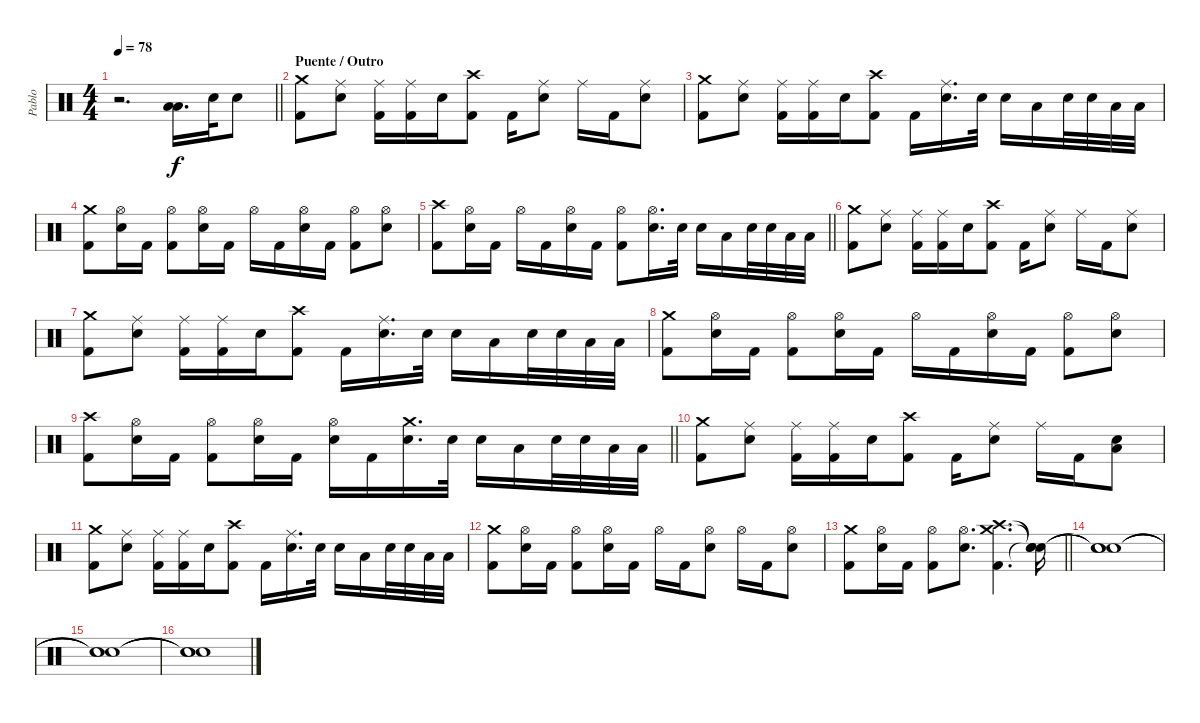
\track ("Pablo" "Pablo") {instrument percussion}
\staff
\articulation defaults
\ts (4 4)
\tempo 78
\clef neutral
\barLineRight lightlight
\ks c
r.2{d dy f} ("Low Tom (hit)" "Low Floor Tom (hit)").16{d} "Electric Snare (hit)".32 "Electric Snare (hit)".8 |
\section ("" "Puente / Outro")
("Crash medium (hit)" "Kick (hit) 2").8 ("Ride (middle)" "Electric Snare (hit)").8 ("Ride (middle)" "Kick (hit) 2").16 ("Ride (middle)" "Kick (hit) 2").16 "Electric Snare (hit)".16 ("Crash high (hit)" "Kick (hit) 2").8 "Kick (hit) 2".16 ("Ride (middle)" "Electric Snare (hit)").8 "Ride (middle)".16 "Kick (hit) 2".16 ("Ride (middle)" "Electric Snare (hit)").8 |
("Crash medium (hit)" "Kick (hit) 2").8 ("Ride (middle)" "Electric Snare (hit)").8 ("Ride (middle)" "Kick (hit) 2").16 ("Ride (middle)" "Kick (hit) 2").16 "Electric Snare (hit)".16 ("Crash high (hit)" "Kick (hit) 2").8 "Kick (hit) 2".16 ("Ride (middle)" "Electric Snare (hit)").16{d} "Electric Snare (hit)".32 "Electric Snare (hit)".16 "Low Tom (hit)".16 "Electric Snare (hit)".32 "Electric Snare (hit)".32 "Low Tom (hit)".32 "Low Tom (hit)".32 |
("Crash medium (hit)" "Kick (hit) 2").8 ("Hi-Hat (open)" "Electric Snare (hit)").16 "Kick (hit) 2".16 ("Hi-Hat (open)" "Kick (hit) 2").8 ("Hi-Hat (open)" "Electric Snare (hit)").16 "Kick (hit) 2".16 "Hi-Hat (open)".16 "Kick (hit) 2".16 ("Hi-Hat (open)" "Electric Snare (hit)").16 "Kick (hit) 2".16 ("Hi-Hat (open)" "Kick (hit) 2").8 ("Hi-Hat (open)" "Electric Snare (hit)").8 |
\barLineRight lightlight
("Crash high (hit)" "Kick (hit) 2").8 ("Hi-Hat (open)" "Electric Snare (hit)").16 "Kick (hit) 2".16 "Hi-Hat (open)".16 "Kick (hit) 2".16 ("Hi-Hat (open)" "Electric Snare (hit)").16 "Kick (hit) 2".16 ("Hi-Hat (open)" "Kick (hit) 2").8 ("Hi-Hat (open)" "Electric Snare (hit)").16{d} "Electric Snare (hit)".32 "Electric Snare (hit)".16 "Low Tom (hit)".16 "Electric Snare (hit)".32 "Electric Snare (hit)".32 "Low Tom (hit)".32 "Low Tom (hit)".32 |
("Crash medium (hit)" "Kick (hit) 2").8 ("Ride (middle)" "Electric Snare (hit)").8 ("Ride (middle)" "Kick (hit) 2").16 ("Ride (middle)" "Kick (hit) 2").16 "Electric Snare (hit)".16 ("Crash high (hit)" "Kick (hit) 2").8 "Kick (hit) 2".16 ("Ride (middle)" "Electric Snare (hit)").8 "Ride (middle)".16 "Kick (hit) 2".16 ("Ride (middle)" "Electric Snare (hit)").8 |
("Crash medium (hit)" "Kick (hit) 2").8 ("Ride (middle)" "Electric Snare (hit)").8 ("Ride (middle)" "Kick (hit) 2").16 ("Ride (middle)" "Kick (hit) 2").16 "Electric Snare (hit)".16 ("Crash high (hit)" "Kick (hit) 2").8 "Kick (hit) 2".16 ("Ride (middle)" "Electric Snare (hit)").16{d} "Electric Snare (hit)".32 "Electric Snare (hit)".16 "Low Tom (hit)".16 "Electric Snare (hit)".32 "Electric Snare (hit)".32 "Low Tom (hit)".32 "Low Tom (hit)".32 |
("Crash medium (hit)" "Kick (hit) 2").8 ("Hi-Hat (open)" "Electric Snare (hit)").16 "Kick (hit) 2".16 ("Hi-Hat (open)" "Kick (hit) 2").8 ("Hi-Hat (open)" "Electric Snare (hit)").16 "Kick (hit) 2".16 "Hi-Hat (open)".16 "Kick (hit) 2".16 ("Hi-Hat (open)" "Electric Snare (hit)").16 "Kick (hit) 2".16 ("Hi-Hat (open)" "Kick (hit) 2").8 ("Hi-Hat (open)" "Electric Snare (hit)").8 |
\barLineRight lightlight
("Crash high (hit)" "Kick (hit) 2").8 ("Hi-Hat (open)" "Electric Snare (hit)").16 "Kick (hit) 2".16 ("Hi-Hat (open)" "Kick (hit) 2").8 ("Hi-Hat (open)" "Electric Snare (hit)").16 "Kick (hit) 2".16 ("Hi-Hat (open)" "Electric Snare (hit)").16 "Kick (hit) 2".16 ("Crash medium (hit)" "Electric Snare (hit)").16{d} "Electric Snare (hit)".32 "Electric Snare (hit)".16 "Low Tom (hit)".16 "Electric Snare (hit)".32 "Electric Snare (hit)".32 "Low Tom (hit)".32 "Low Tom (hit)".32 |
("Crash medium (hit)" "Kick (hit) 2").8 ("Ride (middle)" "Electric Snare (hit)").8 ("Ride (middle)" "Kick (hit) 2").16 ("Ride (middle)" "Kick (hit) 2").16 "Electric Snare (hit)".16 ("Crash high (hit)" "Kick (hit) 2").8 "Kick (hit) 2".16 ("Ride (middle)" "Electric Snare (hit)").8 "Ride (middle)".16 "Kick (hit) 2".16 ("Electric Snare (hit)" "Low Floor Tom (hit)").8 |
("Crash medium (hit)" "Kick (hit) 2").8 ("Ride (middle)" "Electric Snare (hit)").8 ("Ride (middle)" "Kick (hit) 2").16 ("Ride (middle)" "Kick (hit) 2").16 "Electric Snare (hit)".16 ("Crash high (hit)" "Kick (hit) 2").8 "Kick (hit) 2".16 ("Ride (middle)" "Electric Snare (hit)").16{d} "Electric Snare (hit)".32 "Electric Snare (hit)".16 "Low Tom (hit)".16 "Electric Snare (hit)".32 "Electric Snare (hit)".32 "Low Tom (hit)".32 "Low Tom (hit)".32 |
("Crash medium (hit)" "Kick (hit) 2").8 ("Hi-Hat (open)" "Electric Snare (hit)").16 "Kick (hit) 2".16 ("Hi-Hat (open)" "Kick (hit) 2").8 ("Hi-Hat (open)" "Electric Snare (hit)").16 "Kick (hit) 2".16 "Hi-Hat (open)".16 "Kick (hit) 2".16 ("Hi-Hat (open)" "Electric Snare (hit)").8 "Hi-Hat (open)".16 "Kick (hit) 2".16 ("Hi-Hat (open)" "Electric Snare (hit)").8 |
\barLineRight lightlight
("Crash medium (hit)" "Kick (hit) 2").8 ("Hi-Hat (open)" "Electric Snare (hit)").16 "Kick (hit) 2".16 ("Hi-Hat (open)" "Kick (hit) 2").8 ("Hi-Hat (open)" "Electric Snare (hit)").8{d} ("Crash medium (hit)" "Crash high (hit)" "Kick (hit) 2").4{d} ("Snare (hit)"{t} "Snare (hit)"{t} "Snare (hit)"{t}).16 |
("Snare (hit)"{t} "Snare (hit)"{t} "Snare (hit)"{t}).1 |
("Snare (hit)"{t} "Snare (hit)"{t} "Snare (hit)"{t}).1 |
("Snare (hit)"{t} "Snare (hit)"{t} "Snare (hit)"{t}).1
